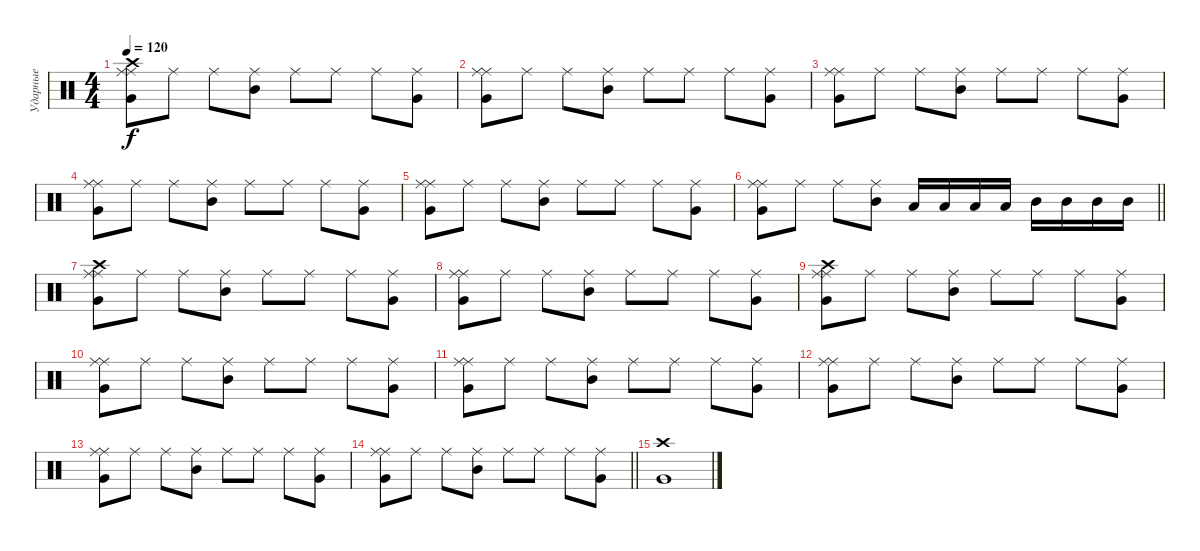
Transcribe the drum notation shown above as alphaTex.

\track ("Ударные" "Ударные") {instrument percussion}
\staff {score}
\articulation defaults
\ts (4 4)
\tempo 120
\clef neutral
\ks c
("Crash high (hit)" "Ride (middle)" "Ride (middle)" "Very Low Tom (hit)").8{dy f} "Ride (middle)".8 "Ride (middle)".8 ("Ride (middle)" "Mid Tom (hit)").8 "Ride (middle)".8 "Ride (middle)".8 "Ride (middle)".8 ("Ride (middle)" "Very Low Tom (hit)").8 |
("Ride (middle)" "Ride (middle)" "Very Low Tom (hit)").8 "Ride (middle)".8 "Ride (middle)".8 ("Ride (middle)" "Mid Tom (hit)").8 "Ride (middle)".8 "Ride (middle)".8 "Ride (middle)".8 ("Ride (middle)" "Very Low Tom (hit)").8 |
("Ride (middle)" "Ride (middle)" "Very Low Tom (hit)").8 "Ride (middle)".8 "Ride (middle)".8 ("Ride (middle)" "Mid Tom (hit)").8 "Ride (middle)".8 "Ride (middle)".8 "Ride (middle)".8 ("Ride (middle)" "Very Low Tom (hit)").8 |
("Ride (middle)" "Ride (middle)" "Very Low Tom (hit)").8 "Ride (middle)".8 "Ride (middle)".8 ("Ride (middle)" "Mid Tom (hit)").8 "Ride (middle)".8 "Ride (middle)".8 "Ride (middle)".8 ("Ride (middle)" "Very Low Tom (hit)").8 |
("Ride (middle)" "Ride (middle)" "Very Low Tom (hit)").8 "Ride (middle)".8 "Ride (middle)".8 ("Ride (middle)" "Mid Tom (hit)").8 "Ride (middle)".8 "Ride (middle)".8 "Ride (middle)".8 ("Ride (middle)" "Very Low Tom (hit)").8 |
\barLineRight lightlight
("Ride (middle)" "Ride (middle)" "Very Low Tom (hit)").8 "Ride (middle)".8 "Ride (middle)".8 ("Ride (middle)" "Mid Tom (hit)").8 "Low Tom (hit)".16 "Low Tom (hit)".16 "Low Tom (hit)".16 "Low Tom (hit)".16 "Mid Tom (hit)".16 "Mid Tom (hit)".16 "Mid Tom (hit)".16 "Mid Tom (hit)".16 |
("Crash high (hit)" "Ride (middle)" "Ride (middle)" "Very Low Tom (hit)").8{volume 11} "Ride (middle)".8 "Ride (middle)".8 ("Ride (middle)" "Mid Tom (hit)").8 "Ride (middle)".8 "Ride (middle)".8 "Ride (middle)".8 ("Ride (middle)" "Very Low Tom (hit)").8 |
("Ride (middle)" "Ride (middle)" "Very Low Tom (hit)").8 "Ride (middle)".8 "Ride (middle)".8 ("Ride (middle)" "Mid Tom (hit)").8 "Ride (middle)".8 "Ride (middle)".8 "Ride (middle)".8 ("Ride (middle)" "Very Low Tom (hit)").8 |
("Crash high (hit)" "Ride (middle)" "Ride (middle)" "Very Low Tom (hit)").8 "Ride (middle)".8 "Ride (middle)".8 ("Ride (middle)" "Mid Tom (hit)").8 "Ride (middle)".8 "Ride (middle)".8 "Ride (middle)".8 ("Ride (middle)" "Very Low Tom (hit)").8 |
("Ride (middle)" "Ride (middle)" "Very Low Tom (hit)").8 "Ride (middle)".8 "Ride (middle)".8 ("Ride (middle)" "Mid Tom (hit)").8 "Ride (middle)".8 "Ride (middle)".8 "Ride (middle)".8 ("Ride (middle)" "Very Low Tom (hit)").8 |
("Ride (middle)" "Ride (middle)" "Very Low Tom (hit)").8 "Ride (middle)".8 "Ride (middle)".8 ("Ride (middle)" "Mid Tom (hit)").8 "Ride (middle)".8 "Ride (middle)".8 "Ride (middle)".8 ("Ride (middle)" "Very Low Tom (hit)").8 |
("Ride (middle)" "Ride (middle)" "Very Low Tom (hit)").8 "Ride (middle)".8 "Ride (middle)".8 ("Ride (middle)" "Mid Tom (hit)").8 "Ride (middle)".8 "Ride (middle)".8 "Ride (middle)".8 ("Ride (middle)" "Very Low Tom (hit)").8 |
("Ride (middle)" "Ride (middle)" "Very Low Tom (hit)").8 "Ride (middle)".8 "Ride (middle)".8 ("Ride (middle)" "Mid Tom (hit)").8 "Ride (middle)".8 "Ride (middle)".8 "Ride (middle)".8 ("Ride (middle)" "Very Low Tom (hit)").8 |
\barLineRight lightlight
("Ride (middle)" "Ride (middle)" "Very Low Tom (hit)").8 "Ride (middle)".8 "Ride (middle)".8 ("Ride (middle)" "Mid Tom (hit)").8 "Ride (middle)".8 "Ride (middle)".8 "Ride (middle)".8 ("Ride (middle)" "Very Low Tom (hit)").8 |
("Crash high (hit)" "Very Low Tom (hit)").1
